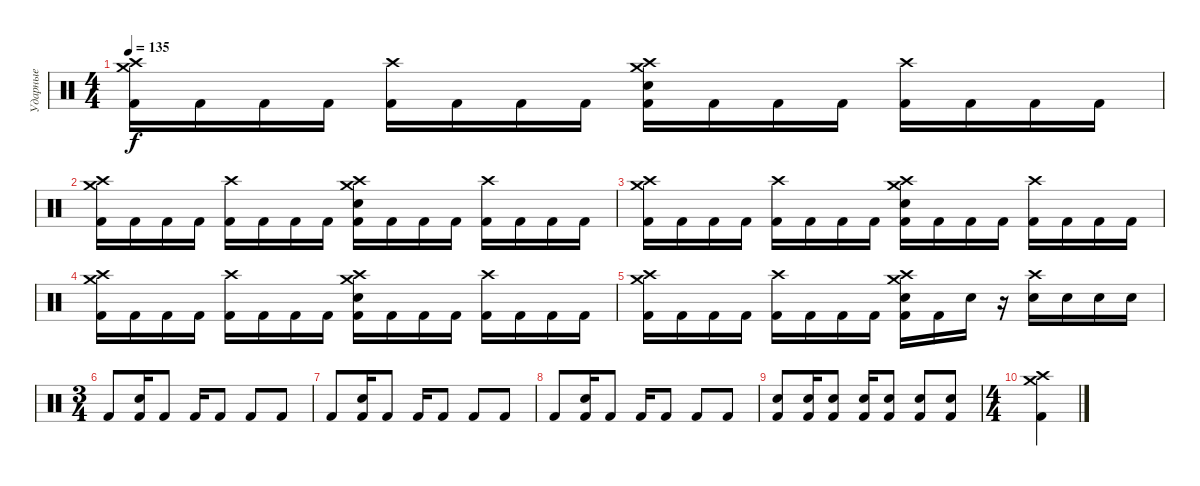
\track ("Ударные" "Ударные") {instrument percussion}
\staff {score}
\articulation defaults
\ts (4 4)
\tempo 135
\clef neutral
\ks c
("Crash high (hit)" "Crash medium (hit)" "Kick (hit) 2").16{dy f} "Kick (hit) 2".16 "Kick (hit) 2".16 "Kick (hit) 2".16 ("Crash high (hit)" "Kick (hit) 2").16 "Kick (hit) 2".16 "Kick (hit) 2".16 "Kick (hit) 2".16 ("Crash medium (hit)" "Crash high (hit)" "Electric Snare (hit)" "Kick (hit) 2").16 "Kick (hit) 2".16 "Kick (hit) 2".16 "Kick (hit) 2".16 ("Crash high (hit)" "Kick (hit) 2").16 "Kick (hit) 2".16 "Kick (hit) 2".16 "Kick (hit) 2".16 |
("Crash high (hit)" "Crash medium (hit)" "Kick (hit) 2").16 "Kick (hit) 2".16 "Kick (hit) 2".16 "Kick (hit) 2".16 ("Crash high (hit)" "Kick (hit) 2").16 "Kick (hit) 2".16 "Kick (hit) 2".16 "Kick (hit) 2".16 ("Crash medium (hit)" "Crash high (hit)" "Electric Snare (hit)" "Kick (hit) 2").16 "Kick (hit) 2".16 "Kick (hit) 2".16 "Kick (hit) 2".16 ("Crash high (hit)" "Kick (hit) 2").16 "Kick (hit) 2".16 "Kick (hit) 2".16 "Kick (hit) 2".16 |
("Crash high (hit)" "Crash medium (hit)" "Kick (hit) 2").16 "Kick (hit) 2".16 "Kick (hit) 2".16 "Kick (hit) 2".16 ("Crash high (hit)" "Kick (hit) 2").16 "Kick (hit) 2".16 "Kick (hit) 2".16 "Kick (hit) 2".16 ("Crash medium (hit)" "Crash high (hit)" "Electric Snare (hit)" "Kick (hit) 2").16 "Kick (hit) 2".16 "Kick (hit) 2".16 "Kick (hit) 2".16 ("Crash high (hit)" "Kick (hit) 2").16 "Kick (hit) 2".16 "Kick (hit) 2".16 "Kick (hit) 2".16 |
("Crash high (hit)" "Crash medium (hit)" "Kick (hit) 2").16 "Kick (hit) 2".16 "Kick (hit) 2".16 "Kick (hit) 2".16 ("Crash high (hit)" "Kick (hit) 2").16 "Kick (hit) 2".16 "Kick (hit) 2".16 "Kick (hit) 2".16 ("Crash medium (hit)" "Crash high (hit)" "Electric Snare (hit)" "Kick (hit) 2").16 "Kick (hit) 2".16 "Kick (hit) 2".16 "Kick (hit) 2".16 ("Crash high (hit)" "Kick (hit) 2").16 "Kick (hit) 2".16 "Kick (hit) 2".16 "Kick (hit) 2".16 |
("Crash high (hit)" "Crash medium (hit)" "Kick (hit) 2").16 "Kick (hit) 2".16 "Kick (hit) 2".16 "Kick (hit) 2".16 ("Crash high (hit)" "Kick (hit) 2").16 "Kick (hit) 2".16 "Kick (hit) 2".16 "Kick (hit) 2".16 ("Crash medium (hit)" "Crash high (hit)" "Electric Snare (hit)" "Kick (hit) 2").16 "Kick (hit) 2".16 "Electric Snare (hit)".16 r.16 ("Crash high (hit)" "Electric Snare (hit)").16 "Electric Snare (hit)".16 "Electric Snare (hit)".16 "Electric Snare (hit)".16 |
\ts (3 4)
"Kick (hit) 2".8 ("Electric Snare (hit)" "Kick (hit) 2").16 "Kick (hit) 2".8 "Kick (hit) 2".16 "Kick (hit) 2".8 "Kick (hit) 2".8 "Kick (hit) 2".8 |
"Kick (hit) 2".8 ("Electric Snare (hit)" "Kick (hit) 2").16 "Kick (hit) 2".8 "Kick (hit) 2".16 "Kick (hit) 2".8 "Kick (hit) 2".8 "Kick (hit) 2".8 |
"Kick (hit) 2".8 ("Electric Snare (hit)" "Kick (hit) 2").16 "Kick (hit) 2".8 "Kick (hit) 2".16 "Kick (hit) 2".8 "Kick (hit) 2".8 "Kick (hit) 2".8 |
("Electric Snare (hit)" "Kick (hit) 2").8 ("Electric Snare (hit)" "Kick (hit) 2").16 ("Electric Snare (hit)" "Kick (hit) 2").8 ("Electric Snare (hit)" "Kick (hit) 2").16 ("Electric Snare (hit)" "Kick (hit) 2").8 ("Electric Snare (hit)" "Kick (hit) 2").8 ("Electric Snare (hit)" "Kick (hit) 2").8 |
\ts (4 4)
("Crash high (hit)" "Crash medium (hit)" "Kick (hit) 2").4
